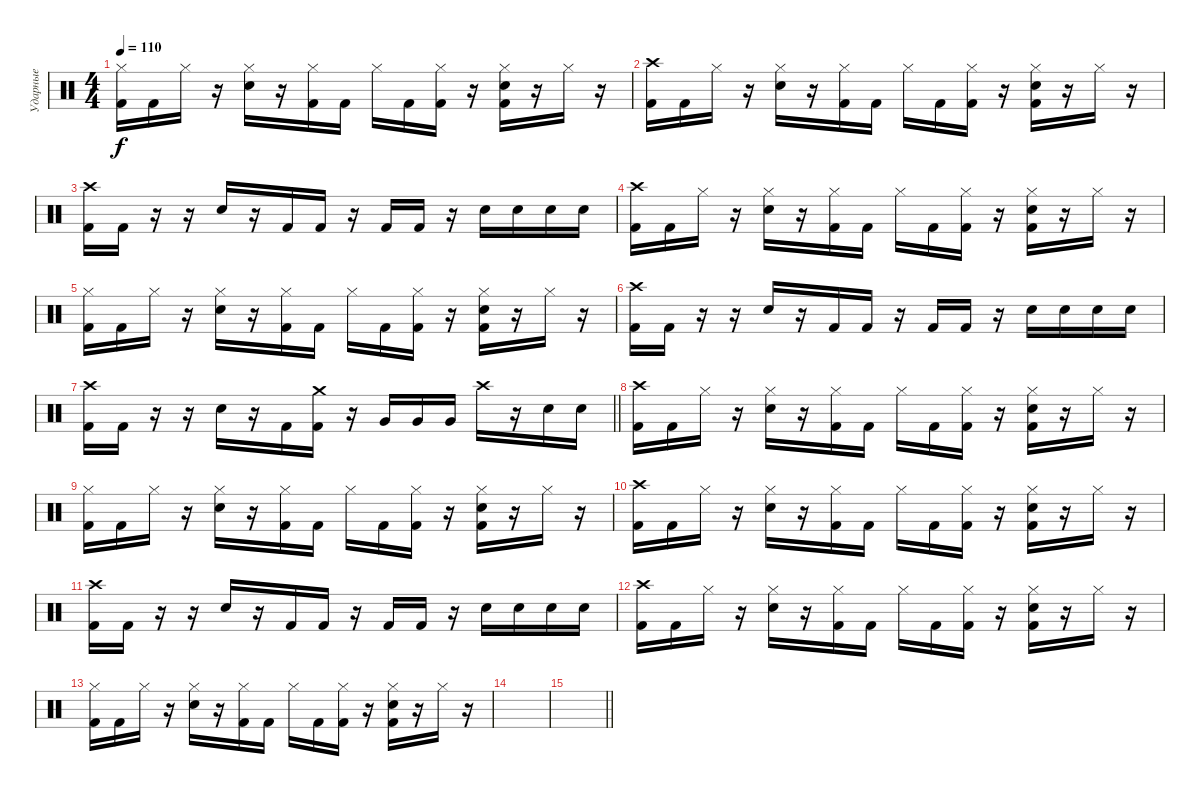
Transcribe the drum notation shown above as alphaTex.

\track ("Ударные" "Ударные") {instrument percussion}
\staff {score}
\articulation defaults
\ts (4 4)
\tempo 110
\clef neutral
\ks c
("Hi-Hat (closed)" "Kick (hit) 2").16{dy f} "Kick (hit) 2".16 "Hi-Hat (closed)".16 r.16 ("Hi-Hat (closed)" "Electric Snare (hit)").16 r.16 ("Hi-Hat (closed)" "Kick (hit) 2").16 "Kick (hit) 2".16 "Hi-Hat (closed)".16 "Kick (hit) 2".16 ("Hi-Hat (closed)" "Kick (hit) 2").16 r.16 ("Hi-Hat (closed)" "Electric Snare (hit)" "Kick (hit) 2").16 r.16 "Hi-Hat (closed)".16 r.16 |
("Crash high (hit)" "Kick (hit) 2").16 "Kick (hit) 2".16 "Hi-Hat (closed)".16 r.16 ("Hi-Hat (closed)" "Electric Snare (hit)").16 r.16 ("Hi-Hat (closed)" "Kick (hit) 2").16 "Kick (hit) 2".16 "Hi-Hat (closed)".16 "Kick (hit) 2".16 ("Hi-Hat (closed)" "Kick (hit) 2").16 r.16 ("Hi-Hat (closed)" "Electric Snare (hit)" "Kick (hit) 2").16 r.16 "Hi-Hat (closed)".16 r.16 |
("Crash high (hit)" "Kick (hit) 2").16 "Kick (hit) 2".16 r.16 r.16 "Electric Snare (hit)".16 r.16 "Kick (hit) 2".16 "Kick (hit) 2".16 r.16 "Kick (hit) 2".16 "Kick (hit) 2".16 r.16 "Electric Snare (hit)".16 "Electric Snare (hit)".16 "Electric Snare (hit)".16 "Electric Snare (hit)".16 |
("Crash high (hit)" "Kick (hit) 2").16 "Kick (hit) 2".16 "Hi-Hat (closed)".16 r.16 ("Hi-Hat (closed)" "Electric Snare (hit)").16 r.16 ("Hi-Hat (closed)" "Kick (hit) 2").16 "Kick (hit) 2".16 "Hi-Hat (closed)".16 "Kick (hit) 2".16 ("Hi-Hat (closed)" "Kick (hit) 2").16 r.16 ("Hi-Hat (closed)" "Electric Snare (hit)" "Kick (hit) 2").16 r.16 "Hi-Hat (closed)".16 r.16 |
("Hi-Hat (closed)" "Kick (hit) 2").16 "Kick (hit) 2".16 "Hi-Hat (closed)".16 r.16 ("Hi-Hat (closed)" "Electric Snare (hit)").16 r.16 ("Hi-Hat (closed)" "Kick (hit) 2").16 "Kick (hit) 2".16 "Hi-Hat (closed)".16 "Kick (hit) 2".16 ("Hi-Hat (closed)" "Kick (hit) 2").16 r.16 ("Hi-Hat (closed)" "Electric Snare (hit)" "Kick (hit) 2").16 r.16 "Hi-Hat (closed)".16 r.16 |
("Crash high (hit)" "Kick (hit) 2").16 "Kick (hit) 2".16 r.16 r.16 "Electric Snare (hit)".16 r.16 "Kick (hit) 2".16 "Kick (hit) 2".16 r.16 "Kick (hit) 2".16 "Kick (hit) 2".16 r.16 "Electric Snare (hit)".16 "Electric Snare (hit)".16 "Electric Snare (hit)".16 "Electric Snare (hit)".16 |
\barLineRight lightlight
("Crash high (hit)" "Kick (hit) 2").16 "Kick (hit) 2".16 r.16 r.16 "Electric Snare (hit)".16 r.16 "Kick (hit) 2".16 ("Crash medium (hit)" "Kick (hit) 2").16 r.16 "Very Low Tom (hit)".16 "Very Low Tom (hit)".16 "Very Low Tom (hit)".16 "Crash high (hit)".16 r.16 "Electric Snare (hit)".16 "Electric Snare (hit)".16 |
("Crash high (hit)" "Kick (hit) 2").16 "Kick (hit) 2".16 "Hi-Hat (closed)".16 r.16 ("Hi-Hat (closed)" "Electric Snare (hit)").16 r.16 ("Hi-Hat (closed)" "Kick (hit) 2").16 "Kick (hit) 2".16 "Hi-Hat (closed)".16 "Kick (hit) 2".16 ("Hi-Hat (closed)" "Kick (hit) 2").16 r.16 ("Hi-Hat (closed)" "Electric Snare (hit)" "Kick (hit) 2").16 r.16 "Hi-Hat (closed)".16 r.16 |
("Hi-Hat (closed)" "Kick (hit) 2").16 "Kick (hit) 2".16 "Hi-Hat (closed)".16 r.16 ("Hi-Hat (closed)" "Electric Snare (hit)").16 r.16 ("Hi-Hat (closed)" "Kick (hit) 2").16 "Kick (hit) 2".16 "Hi-Hat (closed)".16 "Kick (hit) 2".16 ("Hi-Hat (closed)" "Kick (hit) 2").16 r.16 ("Hi-Hat (closed)" "Electric Snare (hit)" "Kick (hit) 2").16 r.16 "Hi-Hat (closed)".16 r.16 |
("Crash high (hit)" "Kick (hit) 2").16 "Kick (hit) 2".16 "Hi-Hat (closed)".16 r.16 ("Hi-Hat (closed)" "Electric Snare (hit)").16 r.16 ("Hi-Hat (closed)" "Kick (hit) 2").16 "Kick (hit) 2".16 "Hi-Hat (closed)".16 "Kick (hit) 2".16 ("Hi-Hat (closed)" "Kick (hit) 2").16 r.16 ("Hi-Hat (closed)" "Electric Snare (hit)" "Kick (hit) 2").16 r.16 "Hi-Hat (closed)".16 r.16 |
("Crash high (hit)" "Kick (hit) 2").16 "Kick (hit) 2".16 r.16 r.16 "Electric Snare (hit)".16 r.16 "Kick (hit) 2".16 "Kick (hit) 2".16 r.16 "Kick (hit) 2".16 "Kick (hit) 2".16 r.16 "Electric Snare (hit)".16 "Electric Snare (hit)".16 "Electric Snare (hit)".16 "Electric Snare (hit)".16 |
("Crash high (hit)" "Kick (hit) 2").16 "Kick (hit) 2".16 "Hi-Hat (closed)".16 r.16 ("Hi-Hat (closed)" "Electric Snare (hit)").16 r.16 ("Hi-Hat (closed)" "Kick (hit) 2").16 "Kick (hit) 2".16 "Hi-Hat (closed)".16 "Kick (hit) 2".16 ("Hi-Hat (closed)" "Kick (hit) 2").16 r.16 ("Hi-Hat (closed)" "Electric Snare (hit)" "Kick (hit) 2").16 r.16 "Hi-Hat (closed)".16 r.16 |
("Hi-Hat (closed)" "Kick (hit) 2").16 "Kick (hit) 2".16 "Hi-Hat (closed)".16 r.16 ("Hi-Hat (closed)" "Electric Snare (hit)").16 r.16 ("Hi-Hat (closed)" "Kick (hit) 2").16 "Kick (hit) 2".16 "Hi-Hat (closed)".16 "Kick (hit) 2".16 ("Hi-Hat (closed)" "Kick (hit) 2").16 r.16 ("Hi-Hat (closed)" "Electric Snare (hit)" "Kick (hit) 2").16 r.16 "Hi-Hat (closed)".16 r.16 |
|
\barLineRight lightlight
